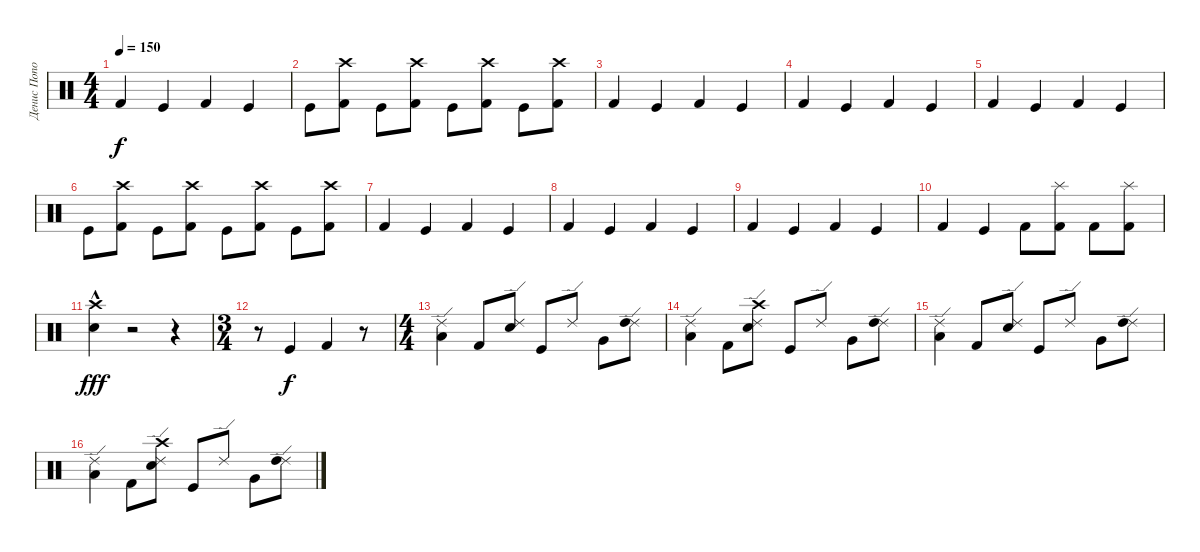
\track ("Денис Попов" "Денис Попо") {instrument percussion}
\staff
\articulation defaults
\ts (4 4)
\tempo 150
\clef neutral
\ks c "Kick (hit) 2".4{dy f} "Kick (hit)".4 "Kick (hit) 2".4 "Kick (hit)".4
|
"Kick (hit)".8 ("Crash high (hit)" "Kick (hit) 2").8 "Kick (hit)".8 ("Crash high (hit)" "Kick (hit) 2").8 "Kick (hit)".8 ("Crash high (hit)" "Kick (hit) 2").8 "Kick (hit)".8 ("Crash high (hit)" "Kick (hit) 2").8 |
"Kick (hit) 2".4 "Kick (hit)".4 "Kick (hit) 2".4 "Kick (hit)".4 |
"Kick (hit) 2".4 "Kick (hit)".4 "Kick (hit) 2".4 "Kick (hit)".4 |
"Kick (hit) 2".4 "Kick (hit)".4 "Kick (hit) 2".4 "Kick (hit)".4 |
"Kick (hit)".8 ("Crash high (hit)" "Kick (hit) 2").8 "Kick (hit)".8 ("Crash high (hit)" "Kick (hit) 2").8 "Kick (hit)".8 ("Crash high (hit)" "Kick (hit) 2").8 "Kick (hit)".8 ("Crash high (hit)" "Kick (hit) 2").8 |
"Kick (hit) 2".4 "Kick (hit)".4 "Kick (hit) 2".4 "Kick (hit)".4 |
"Kick (hit) 2".4 "Kick (hit)".4 "Kick (hit) 2".4 "Kick (hit)".4 |
"Kick (hit) 2".4 "Kick (hit)".4 "Kick (hit) 2".4 "Kick (hit)".4 |
"Kick (hit) 2".4 "Kick (hit)".4 "Kick (hit) 2".8 ("Splash (hit)" "Kick (hit) 2").8 "Kick (hit) 2".8 ("Splash (hit)" "Kick (hit) 2").8 |
("Crash high (hit)"{hac} "Electric Snare (hit)").4{dy fff} r.2 r.4 |
\ts (3 4)
r.8 "Kick (hit)".4{dy f} "Kick (hit) 2".4 r.8 |
\ts (4 4)
("Ride (edge) 2" "Low Tom (hit)").4 "Kick (hit) 2".8 ("Ride (edge) 2" "Electric Snare (hit)").8 "Kick (hit)".8 "Ride (edge) 2".8 "Very Low Tom (hit)".8 ("Ride (edge) 2" "High Tom (hit)").8 |
("Ride (edge) 2" "Low Tom (hit)").4 "Kick (hit) 2".8 ("Ride (edge) 2" "Crash high (hit)" "Electric Snare (hit)").8 "Kick (hit)".8 "Ride (edge) 2".8 "Very Low Tom (hit)".8 ("Ride (edge) 2" "High Tom (hit)").8 |
("Ride (edge) 2" "Low Tom (hit)").4 "Kick (hit) 2".8 ("Ride (edge) 2" "Electric Snare (hit)").8 "Kick (hit)".8 "Ride (edge) 2".8 "Very Low Tom (hit)".8 ("Ride (edge) 2" "High Tom (hit)").8 |
("Ride (edge) 2" "Low Tom (hit)").4 "Kick (hit) 2".8 ("Ride (edge) 2" "Crash high (hit)" "Electric Snare (hit)").8 "Kick (hit)".8 "Ride (edge) 2".8 "Very Low Tom (hit)".8 ("Ride (edge) 2" "High Tom (hit)").8
